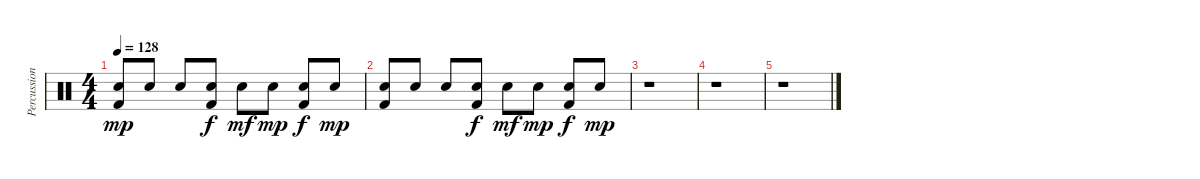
\track ("Percussions" "Percussion") {instrument percussion}
\staff {score}
\articulation defaults
\ts (4 4)
\tempo 128
\clef neutral
\ks c
("Electric Snare (hit)" "Kick (hit) 2").8{dy mp} "Electric Snare (hit)".8 "Electric Snare (hit)".8 ("Electric Snare (hit)" "Kick (hit) 2").8{dy f} "Electric Snare (hit)".8{dy mf} "Electric Snare (hit)".8{dy mp} ("Electric Snare (hit)" "Kick (hit) 2").8{dy f} "Electric Snare (hit)".8{dy mp} |
("Electric Snare (hit)" "Kick (hit) 2").8 "Electric Snare (hit)".8 "Electric Snare (hit)".8 ("Electric Snare (hit)" "Kick (hit) 2").8{dy f} "Electric Snare (hit)".8{dy mf} "Electric Snare (hit)".8{dy mp} ("Electric Snare (hit)" "Kick (hit) 2").8{dy f} "Electric Snare (hit)".8{dy mp} |
r.1 |
r.1 |
r.1
